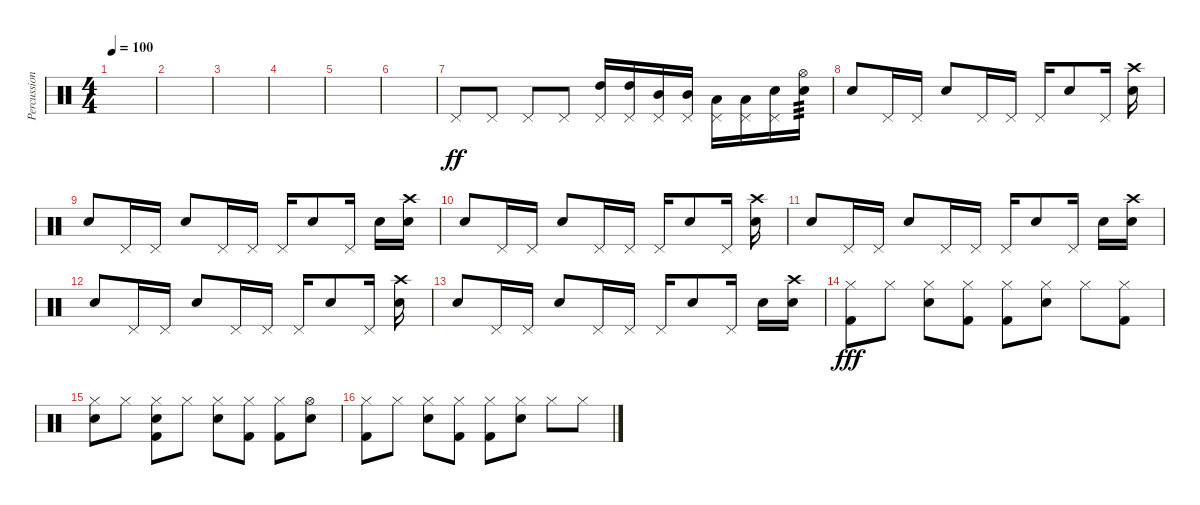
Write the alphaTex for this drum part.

\track ("Percussion" "Percussion") {instrument percussion}
\staff {score}
\articulation defaults
\ts (4 4)
\tempo 100
\clef neutral
\ks c
|
|
|
|
|
|
"Pedal Hi-Hat (hit)".8{dy ff} "Pedal Hi-Hat (hit)".8 "Pedal Hi-Hat (hit)".8 "Pedal Hi-Hat (hit)".8 ("High Tom (hit)" "Pedal Hi-Hat (hit)").16 ("High Tom (hit)" "Pedal Hi-Hat (hit)").16 ("Mid Tom (hit)" "Pedal Hi-Hat (hit)").16 ("Mid Tom (hit)" "Pedal Hi-Hat (hit)").16 ("Low Tom (hit)" "Pedal Hi-Hat (hit)").16 ("Low Tom (hit)" "Pedal Hi-Hat (hit)").16 ("Electric Snare (hit)" "Pedal Hi-Hat (hit)").16 ("Electric Snare (hit)" "Hi-Hat (open)").16{tp 3} |
"Snare (hit) 2".8 "Pedal Hi-Hat (hit)".16 "Pedal Hi-Hat (hit)".16 "Snare (hit) 2".8 "Pedal Hi-Hat (hit)".16 "Pedal Hi-Hat (hit)".16 "Pedal Hi-Hat (hit)".16 "Snare (hit) 2".8 "Pedal Hi-Hat (hit)".16 ("Crash high (hit)" "Snare (hit) 2").16 |
"Snare (hit) 2".8 "Pedal Hi-Hat (hit)".16 "Pedal Hi-Hat (hit)".16 "Snare (hit) 2".8 "Pedal Hi-Hat (hit)".16 "Pedal Hi-Hat (hit)".16 "Pedal Hi-Hat (hit)".16 "Snare (hit) 2".8 "Pedal Hi-Hat (hit)".16 "Snare (hit) 2".16 ("Crash high (hit)" "Snare (hit) 2").16 |
"Snare (hit) 2".8 "Pedal Hi-Hat (hit)".16 "Pedal Hi-Hat (hit)".16 "Snare (hit) 2".8 "Pedal Hi-Hat (hit)".16 "Pedal Hi-Hat (hit)".16 "Pedal Hi-Hat (hit)".16 "Snare (hit) 2".8 "Pedal Hi-Hat (hit)".16 ("Crash high (hit)" "Snare (hit) 2").16 |
"Snare (hit) 2".8 "Pedal Hi-Hat (hit)".16 "Pedal Hi-Hat (hit)".16 "Snare (hit) 2".8 "Pedal Hi-Hat (hit)".16 "Pedal Hi-Hat (hit)".16 "Pedal Hi-Hat (hit)".16 "Snare (hit) 2".8 "Pedal Hi-Hat (hit)".16 "Snare (hit) 2".16 ("Crash high (hit)" "Snare (hit) 2").16 |
"Snare (hit) 2".8 "Pedal Hi-Hat (hit)".16 "Pedal Hi-Hat (hit)".16 "Snare (hit) 2".8 "Pedal Hi-Hat (hit)".16 "Pedal Hi-Hat (hit)".16 "Pedal Hi-Hat (hit)".16 "Snare (hit) 2".8 "Pedal Hi-Hat (hit)".16 ("Crash high (hit)" "Snare (hit) 2").16 |
"Snare (hit) 2".8 "Pedal Hi-Hat (hit)".16 "Pedal Hi-Hat (hit)".16 "Snare (hit) 2".8 "Pedal Hi-Hat (hit)".16 "Pedal Hi-Hat (hit)".16 "Pedal Hi-Hat (hit)".16 "Snare (hit) 2".8 "Pedal Hi-Hat (hit)".16 "Snare (hit) 2".16 ("Crash high (hit)" "Snare (hit) 2").16 |
("Kick (hit) 2" "Hi-Hat (closed)").8{dy fff} "Hi-Hat (closed)".8 ("Electric Snare (hit)" "Hi-Hat (closed)").8 ("Kick (hit) 2" "Hi-Hat (closed)").8 ("Kick (hit) 2" "Hi-Hat (closed)").8 ("Electric Snare (hit)" "Hi-Hat (closed)").8 "Hi-Hat (closed)".8 ("Kick (hit) 2" "Hi-Hat (closed)").8 |
("Electric Snare (hit)" "Hi-Hat (closed)").8 "Hi-Hat (closed)".8 ("Kick (hit) 2" "Electric Snare (hit)" "Hi-Hat (closed)").8 "Hi-Hat (closed)".8 ("Electric Snare (hit)" "Hi-Hat (closed)").8 ("Kick (hit) 2" "Hi-Hat (closed)").8 ("Kick (hit) 2" "Hi-Hat (closed)").8 ("Electric Snare (hit)" "Hi-Hat (open)").8 |
("Kick (hit) 2" "Hi-Hat (closed)").8 "Hi-Hat (closed)".8 ("Electric Snare (hit)" "Hi-Hat (closed)").8 ("Kick (hit) 2" "Hi-Hat (closed)").8 ("Kick (hit) 2" "Hi-Hat (closed)").8 ("Electric Snare (hit)" "Hi-Hat (closed)").8 "Hi-Hat (closed)".8 "Hi-Hat (closed)".8
